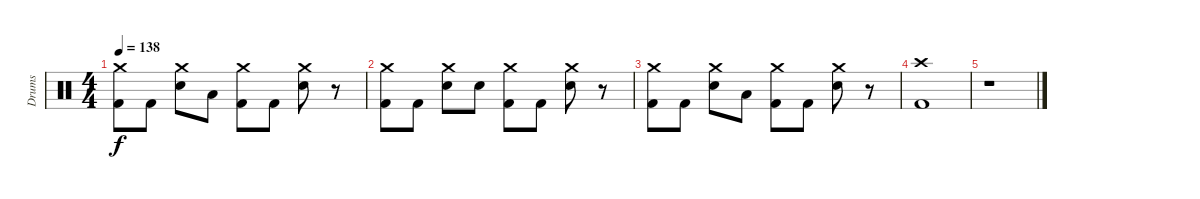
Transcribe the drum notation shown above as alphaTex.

\track ("Drums" "Drums") {instrument percussion}
\staff {score}
\articulation defaults
\ts (4 4)
\tempo 138
\clef neutral
\ks c
("Crash medium (hit)" "Kick (hit) 2").8{dy f} "Kick (hit) 2".8 ("Crash medium (hit)" "Electric Snare (hit)").8 "Low Tom (hit)".8 ("Crash medium (hit)" "Kick (hit) 2").8 "Kick (hit) 2".8 ("Crash medium (hit)" "Electric Snare (hit)").8 r.8 |
("Crash medium (hit)" "Kick (hit) 2").8 "Kick (hit) 2".8 ("Crash medium (hit)" "Electric Snare (hit)").8 "Electric Snare (hit)".8 ("Crash medium (hit)" "Kick (hit) 2").8 "Kick (hit) 2".8 ("Crash medium (hit)" "Electric Snare (hit)").8 r.8 |
("Crash medium (hit)" "Kick (hit) 2").8 "Kick (hit) 2".8 ("Crash medium (hit)" "Electric Snare (hit)").8 "Low Tom (hit)".8 ("Crash medium (hit)" "Kick (hit) 2").8 "Kick (hit) 2".8 ("Crash medium (hit)" "Electric Snare (hit)").8 r.8 |
("Crash high (hit)" "Kick (hit) 2").1 |
r.1
